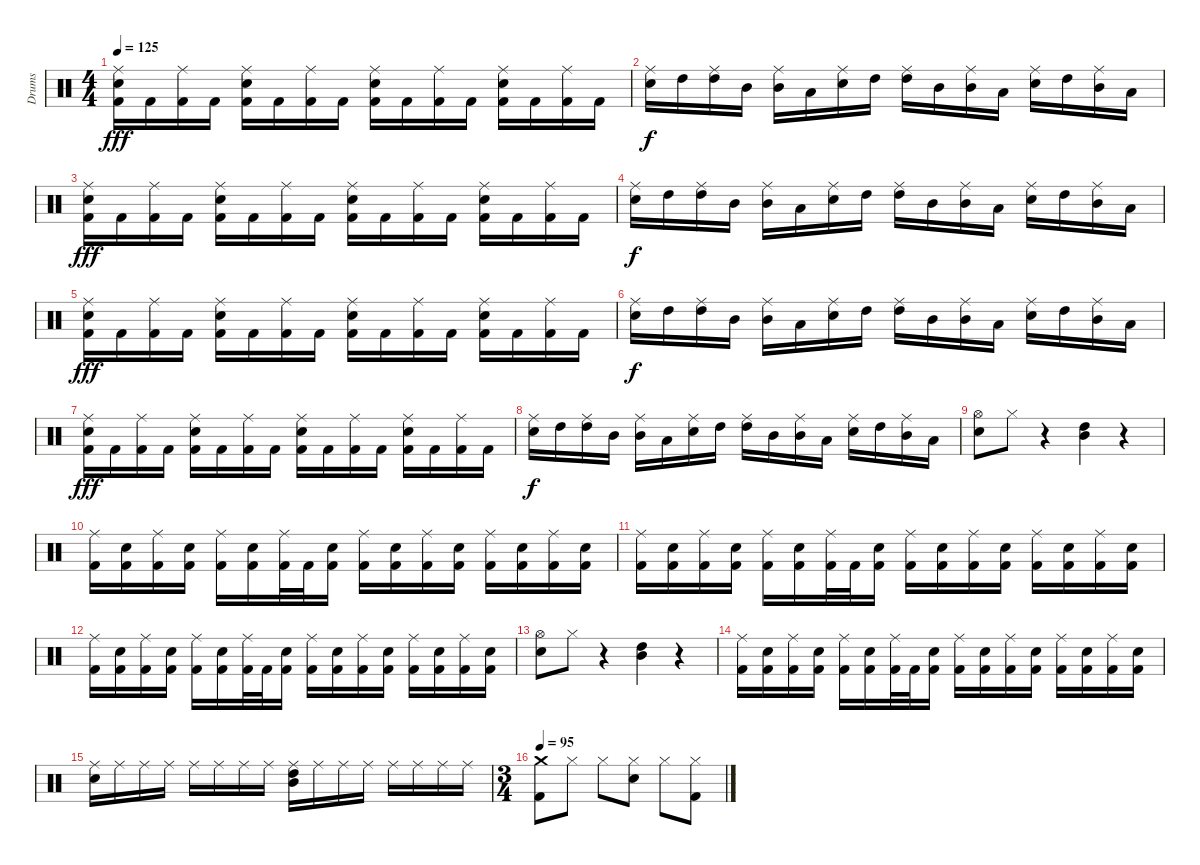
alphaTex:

\track ("Drums" "Drums") {instrument percussion}
\staff {score}
\articulation defaults
\ts (4 4)
\tempo 125
\clef neutral
\ks c
("Ride (middle)" "Electric Snare (hit)" "Kick (hit) 2").16{dy fff} "Kick (hit) 2".16 ("Ride (middle)" "Kick (hit) 2").16 "Kick (hit) 2".16 ("Ride (middle)" "Electric Snare (hit)" "Kick (hit) 2").16 "Kick (hit) 2".16 ("Ride (middle)" "Kick (hit) 2").16 "Kick (hit) 2".16 ("Ride (middle)" "Electric Snare (hit)" "Kick (hit) 2").16 "Kick (hit) 2".16 ("Ride (middle)" "Kick (hit) 2").16 "Kick (hit) 2".16 ("Ride (middle)" "Electric Snare (hit)" "Kick (hit) 2").16 "Kick (hit) 2".16 ("Ride (middle)" "Kick (hit) 2").16 "Kick (hit) 2".16 |
("Ride (middle)" "Electric Snare (hit)").16{dy f} "High Tom (hit)".16 ("Ride (middle)" "High Tom (hit)").16 "Mid Tom (hit)".16 ("Ride (middle)" "Mid Tom (hit)").16 "Low Tom (hit)".16 ("Ride (middle)" "Electric Snare (hit)").16 "High Tom (hit)".16 ("Ride (middle)" "High Tom (hit)").16 "Mid Tom (hit)".16 ("Ride (middle)" "Mid Tom (hit)").16 "Low Tom (hit)".16 ("Ride (middle)" "Electric Snare (hit)").16 "High Tom (hit)".16 ("Ride (middle)" "Mid Tom (hit)").16 "Low Tom (hit)".16 |
("Ride (middle)" "Electric Snare (hit)" "Kick (hit) 2").16{dy fff} "Kick (hit) 2".16 ("Ride (middle)" "Kick (hit) 2").16 "Kick (hit) 2".16 ("Ride (middle)" "Electric Snare (hit)" "Kick (hit) 2").16 "Kick (hit) 2".16 ("Ride (middle)" "Kick (hit) 2").16 "Kick (hit) 2".16 ("Ride (middle)" "Electric Snare (hit)" "Kick (hit) 2").16 "Kick (hit) 2".16 ("Ride (middle)" "Kick (hit) 2").16 "Kick (hit) 2".16 ("Ride (middle)" "Electric Snare (hit)" "Kick (hit) 2").16 "Kick (hit) 2".16 ("Ride (middle)" "Kick (hit) 2").16 "Kick (hit) 2".16 |
("Ride (middle)" "Electric Snare (hit)").16{dy f} "High Tom (hit)".16 ("Ride (middle)" "High Tom (hit)").16 "Mid Tom (hit)".16 ("Ride (middle)" "Mid Tom (hit)").16 "Low Tom (hit)".16 ("Ride (middle)" "Electric Snare (hit)").16 "High Tom (hit)".16 ("Ride (middle)" "High Tom (hit)").16 "Mid Tom (hit)".16 ("Ride (middle)" "Mid Tom (hit)").16 "Low Tom (hit)".16 ("Ride (middle)" "Electric Snare (hit)").16 "High Tom (hit)".16 ("Ride (middle)" "Mid Tom (hit)").16 "Low Tom (hit)".16 |
("Ride (middle)" "Electric Snare (hit)" "Kick (hit) 2").16{dy fff} "Kick (hit) 2".16 ("Ride (middle)" "Kick (hit) 2").16 "Kick (hit) 2".16 ("Ride (middle)" "Electric Snare (hit)" "Kick (hit) 2").16 "Kick (hit) 2".16 ("Ride (middle)" "Kick (hit) 2").16 "Kick (hit) 2".16 ("Ride (middle)" "Electric Snare (hit)" "Kick (hit) 2").16 "Kick (hit) 2".16 ("Ride (middle)" "Kick (hit) 2").16 "Kick (hit) 2".16 ("Ride (middle)" "Electric Snare (hit)" "Kick (hit) 2").16 "Kick (hit) 2".16 ("Ride (middle)" "Kick (hit) 2").16 "Kick (hit) 2".16 |
("Ride (middle)" "Electric Snare (hit)").16{dy f} "High Tom (hit)".16 ("Ride (middle)" "High Tom (hit)").16 "Mid Tom (hit)".16 ("Ride (middle)" "Mid Tom (hit)").16 "Low Tom (hit)".16 ("Ride (middle)" "Electric Snare (hit)").16 "High Tom (hit)".16 ("Ride (middle)" "High Tom (hit)").16 "Mid Tom (hit)".16 ("Ride (middle)" "Mid Tom (hit)").16 "Low Tom (hit)".16 ("Ride (middle)" "Electric Snare (hit)").16 "High Tom (hit)".16 ("Ride (middle)" "Mid Tom (hit)").16 "Low Tom (hit)".16 |
("Ride (middle)" "Electric Snare (hit)" "Kick (hit) 2").16{dy fff} "Kick (hit) 2".16 ("Ride (middle)" "Kick (hit) 2").16 "Kick (hit) 2".16 ("Ride (middle)" "Electric Snare (hit)" "Kick (hit) 2").16 "Kick (hit) 2".16 ("Ride (middle)" "Kick (hit) 2").16 "Kick (hit) 2".16 ("Ride (middle)" "Electric Snare (hit)" "Kick (hit) 2").16 "Kick (hit) 2".16 ("Ride (middle)" "Kick (hit) 2").16 "Kick (hit) 2".16 ("Ride (middle)" "Electric Snare (hit)" "Kick (hit) 2").16 "Kick (hit) 2".16 ("Ride (middle)" "Kick (hit) 2").16 "Kick (hit) 2".16 |
("Ride (middle)" "Electric Snare (hit)").16{dy f} "High Tom (hit)".16 ("Ride (middle)" "High Tom (hit)").16 "Mid Tom (hit)".16 ("Ride (middle)" "Mid Tom (hit)").16 "Low Tom (hit)".16 ("Ride (middle)" "Electric Snare (hit)").16 "High Tom (hit)".16 ("Ride (middle)" "High Tom (hit)").16 "Mid Tom (hit)".16 ("Ride (middle)" "Mid Tom (hit)").16 "Low Tom (hit)".16 ("Ride (middle)" "Electric Snare (hit)").16 "High Tom (hit)".16 ("Ride (middle)" "Mid Tom (hit)").16 "Low Tom (hit)".16 |
("Hi-Hat (open)" "Electric Snare (hit)").8 "Hi-Hat (closed)".8 r.4 ("Mid Tom (hit)" "High Tom (hit)").4 r.4 |
("Ride (middle)" "Kick (hit) 2").16 ("Electric Snare (hit)" "Kick (hit) 2").16 ("Ride (middle)" "Kick (hit) 2").16 ("Electric Snare (hit)" "Kick (hit) 2").16 ("Ride (middle)" "Kick (hit) 2").16 ("Electric Snare (hit)" "Kick (hit) 2").16 ("Ride (middle)" "Kick (hit) 2").32 "Kick (hit) 2".32 ("Electric Snare (hit)" "Kick (hit) 2").16 ("Ride (middle)" "Kick (hit) 2").16 ("Electric Snare (hit)" "Kick (hit) 2").16 ("Ride (middle)" "Kick (hit) 2").16 ("Electric Snare (hit)" "Kick (hit) 2").16 ("Ride (middle)" "Kick (hit) 2").16 ("Electric Snare (hit)" "Kick (hit) 2").16 ("Ride (middle)" "Kick (hit) 2").16 ("Electric Snare (hit)" "Kick (hit) 2").16 |
("Ride (middle)" "Kick (hit) 2").16 ("Electric Snare (hit)" "Kick (hit) 2").16 ("Ride (middle)" "Kick (hit) 2").16 ("Electric Snare (hit)" "Kick (hit) 2").16 ("Ride (middle)" "Kick (hit) 2").16 ("Electric Snare (hit)" "Kick (hit) 2").16 ("Ride (middle)" "Kick (hit) 2").32 "Kick (hit) 2".32 ("Electric Snare (hit)" "Kick (hit) 2").16 ("Ride (middle)" "Kick (hit) 2").16 ("Electric Snare (hit)" "Kick (hit) 2").16 ("Ride (middle)" "Kick (hit) 2").16 ("Electric Snare (hit)" "Kick (hit) 2").16 ("Ride (middle)" "Kick (hit) 2").16 ("Electric Snare (hit)" "Kick (hit) 2").16 ("Ride (middle)" "Kick (hit) 2").16 ("Electric Snare (hit)" "Kick (hit) 2").16 |
("Ride (middle)" "Kick (hit) 2").16 ("Electric Snare (hit)" "Kick (hit) 2").16 ("Ride (middle)" "Kick (hit) 2").16 ("Electric Snare (hit)" "Kick (hit) 2").16 ("Ride (middle)" "Kick (hit) 2").16 ("Electric Snare (hit)" "Kick (hit) 2").16 ("Ride (middle)" "Kick (hit) 2").32 "Kick (hit) 2".32 ("Electric Snare (hit)" "Kick (hit) 2").16 ("Ride (middle)" "Kick (hit) 2").16 ("Electric Snare (hit)" "Kick (hit) 2").16 ("Ride (middle)" "Kick (hit) 2").16 ("Electric Snare (hit)" "Kick (hit) 2").16 ("Ride (middle)" "Kick (hit) 2").16 ("Electric Snare (hit)" "Kick (hit) 2").16 ("Ride (middle)" "Kick (hit) 2").16 ("Electric Snare (hit)" "Kick (hit) 2").16 |
("Hi-Hat (open)" "Electric Snare (hit)").8 "Hi-Hat (closed)".8 r.4 ("Mid Tom (hit)" "High Tom (hit)").4 r.4 |
("Ride (middle)" "Kick (hit) 2").16 ("Electric Snare (hit)" "Kick (hit) 2").16 ("Ride (middle)" "Kick (hit) 2").16 ("Electric Snare (hit)" "Kick (hit) 2").16 ("Ride (middle)" "Kick (hit) 2").16 ("Electric Snare (hit)" "Kick (hit) 2").16 ("Ride (middle)" "Kick (hit) 2").32 "Kick (hit) 2".32 ("Electric Snare (hit)" "Kick (hit) 2").16 ("Ride (middle)" "Kick (hit) 2").16 ("Electric Snare (hit)" "Kick (hit) 2").16 ("Ride (middle)" "Kick (hit) 2").16 ("Electric Snare (hit)" "Kick (hit) 2").16 ("Ride (middle)" "Kick (hit) 2").16 ("Electric Snare (hit)" "Kick (hit) 2").16 ("Ride (middle)" "Kick (hit) 2").16 ("Electric Snare (hit)" "Kick (hit) 2").16 |
("Ride (middle)" "Electric Snare (hit)").16 "Ride (middle)".16 "Ride (middle)".16 "Ride (middle)".16 "Ride (middle)".16 "Ride (middle)".16 "Ride (middle)".16 "Ride (middle)".16 ("Ride (middle)" "Mid Tom (hit)" "High Tom (hit)").16 "Ride (middle)".16 "Ride (middle)".16 "Ride (middle)".16 "Ride (middle)".16 "Ride (middle)".16 "Ride (middle)".16 "Ride (middle)".16 |
\ts (3 4)
\tempo 95
("Crash medium (hit)" "Kick (hit) 2").8 "Hi-Hat (closed)".8 "Hi-Hat (closed)".8 ("Hi-Hat (closed)" "Electric Snare (hit)").8 "Hi-Hat (closed)".8 ("Hi-Hat (closed)" "Kick (hit) 2").8
